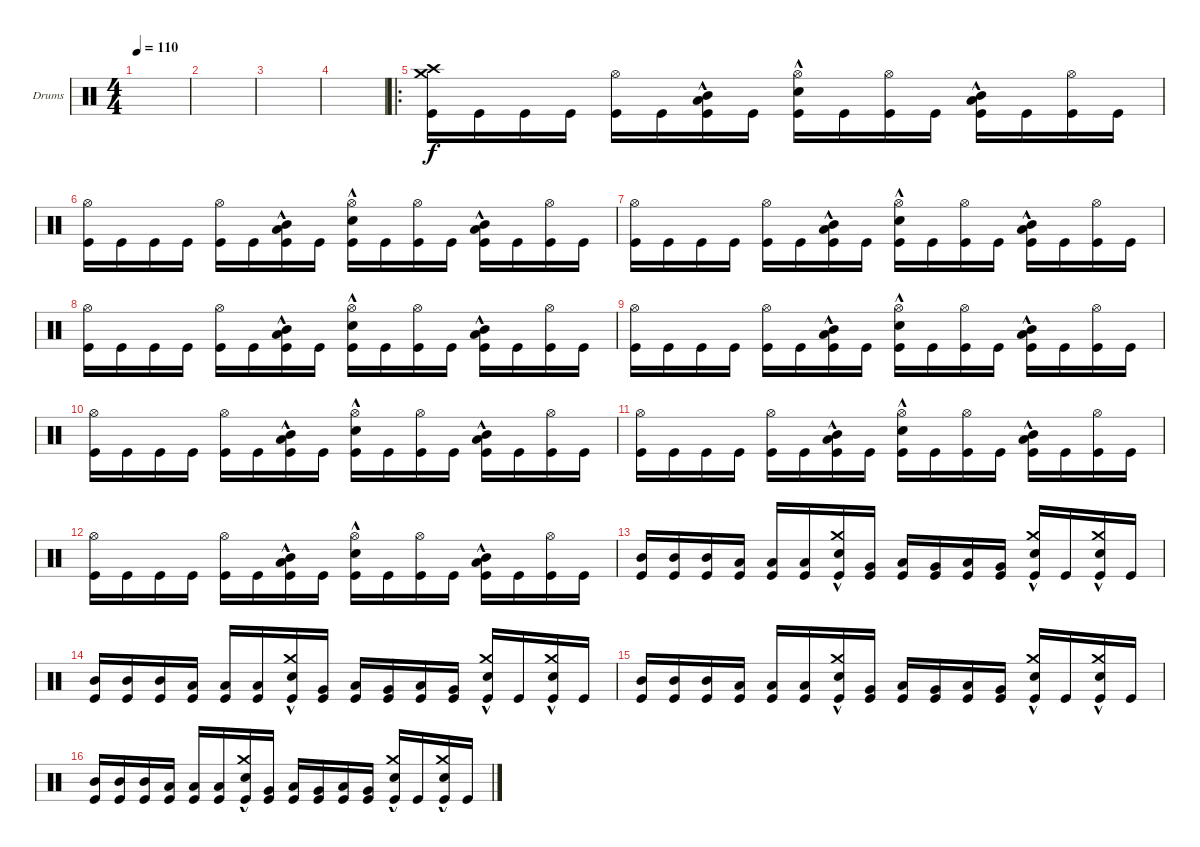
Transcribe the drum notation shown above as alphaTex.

\defaultSystemsLayout 4
\bracketExtendMode groupsimilarinstruments
\firstSystemTrackNameOrientation horizontal
\otherSystemsTrackNameOrientation horizontal
\track ("Drumkit" "Drums") {instrument percussion}
\staff {score}
\articulation defaults
\ts (4 4)
\tempo 110
\clef neutral
\scale
0.472222
\ks c
|
\scale
0.263889 |
\scale
0.263889 |
\scale
0.311475 |
\ro
\scale
0.377049 ("Kick (hit)" "Crash medium (hit)" "Crash high (hit)").16 "Kick (hit)".16 "Kick (hit)".16 "Kick (hit)".16 ("Kick (hit)" "Hi-Hat (open)").16 "Kick (hit)".16 ("Kick (hit)" "Mid Tom (hit)"{hac} "Low Tom (hit)"{hac}).16 "Kick (hit)".16 ("Kick (hit)" "Snare (hit) 2"{hac} "Hi-Hat (open)").16 "Kick (hit)".16 ("Kick (hit)" "Hi-Hat (open)").16 "Kick (hit)".16 ("Kick (hit)" "Low Tom (hit)"{hac} "Mid Tom (hit)"{hac}).16 "Kick (hit)".16 ("Kick (hit)" "Hi-Hat (open)").16 "Kick (hit)".16 |
\scale
0.311475 ("Kick (hit)" "Hi-Hat (open)").16 "Kick (hit)".16 "Kick (hit)".16 "Kick (hit)".16 ("Kick (hit)" "Hi-Hat (open)").16 "Kick (hit)".16 ("Kick (hit)" "Mid Tom (hit)"{hac} "Low Tom (hit)"{hac}).16 "Kick (hit)".16 ("Kick (hit)" "Snare (hit) 2"{hac} "Hi-Hat (open)").16 "Kick (hit)".16 ("Kick (hit)" "Hi-Hat (open)").16 "Kick (hit)".16 ("Kick (hit)" "Low Tom (hit)"{hac} "Mid Tom (hit)"{hac}).16 "Kick (hit)".16 ("Kick (hit)" "Hi-Hat (open)").16 "Kick (hit)".16 |
\scale
0.333333 ("Kick (hit)" "Hi-Hat (open)").16 "Kick (hit)".16 "Kick (hit)".16 "Kick (hit)".16 ("Kick (hit)" "Hi-Hat (open)").16 "Kick (hit)".16 ("Kick (hit)" "Mid Tom (hit)"{hac} "Low Tom (hit)"{hac}).16 "Kick (hit)".16 ("Kick (hit)" "Snare (hit) 2"{hac} "Hi-Hat (open)").16 "Kick (hit)".16 ("Kick (hit)" "Hi-Hat (open)").16 "Kick (hit)".16 ("Kick (hit)" "Low Tom (hit)"{hac} "Mid Tom (hit)"{hac}).16 "Kick (hit)".16 ("Kick (hit)" "Hi-Hat (open)").16 "Kick (hit)".16 |
\scale
0.333333 ("Kick (hit)" "Hi-Hat (open)").16 "Kick (hit)".16 "Kick (hit)".16 "Kick (hit)".16 ("Kick (hit)" "Hi-Hat (open)").16 "Kick (hit)".16 ("Kick (hit)" "Mid Tom (hit)"{hac} "Low Tom (hit)"{hac}).16 "Kick (hit)".16 ("Kick (hit)" "Snare (hit) 2"{hac} "Hi-Hat (open)").16 "Kick (hit)".16 ("Kick (hit)" "Hi-Hat (open)").16 "Kick (hit)".16 ("Kick (hit)" "Low Tom (hit)"{hac} "Mid Tom (hit)"{hac}).16 "Kick (hit)".16 ("Kick (hit)" "Hi-Hat (open)").16 "Kick (hit)".16 |
\scale
0.333333 ("Kick (hit)" "Hi-Hat (open)").16 "Kick (hit)".16 "Kick (hit)".16 "Kick (hit)".16 ("Kick (hit)" "Hi-Hat (open)").16 "Kick (hit)".16 ("Kick (hit)" "Mid Tom (hit)"{hac} "Low Tom (hit)"{hac}).16 "Kick (hit)".16 ("Kick (hit)" "Snare (hit) 2"{hac} "Hi-Hat (open)").16 "Kick (hit)".16 ("Kick (hit)" "Hi-Hat (open)").16 "Kick (hit)".16 ("Kick (hit)" "Low Tom (hit)"{hac} "Mid Tom (hit)"{hac}).16 "Kick (hit)".16 ("Kick (hit)" "Hi-Hat (open)").16 "Kick (hit)".16 |
\scale
0.333333 ("Kick (hit)" "Hi-Hat (open)").16 "Kick (hit)".16 "Kick (hit)".16 "Kick (hit)".16 ("Kick (hit)" "Hi-Hat (open)").16 "Kick (hit)".16 ("Kick (hit)" "Mid Tom (hit)"{hac} "Low Tom (hit)"{hac}).16 "Kick (hit)".16 ("Kick (hit)" "Snare (hit) 2"{hac} "Hi-Hat (open)").16 "Kick (hit)".16 ("Kick (hit)" "Hi-Hat (open)").16 "Kick (hit)".16 ("Kick (hit)" "Low Tom (hit)"{hac} "Mid Tom (hit)"{hac}).16 "Kick (hit)".16 ("Kick (hit)" "Hi-Hat (open)").16 "Kick (hit)".16 |
\scale
0.333333 ("Kick (hit)" "Hi-Hat (open)").16 "Kick (hit)".16 "Kick (hit)".16 "Kick (hit)".16 ("Kick (hit)" "Hi-Hat (open)").16 "Kick (hit)".16 ("Kick (hit)" "Mid Tom (hit)"{hac} "Low Tom (hit)"{hac}).16 "Kick (hit)".16 ("Kick (hit)" "Snare (hit) 2"{hac} "Hi-Hat (open)").16 "Kick (hit)".16 ("Kick (hit)" "Hi-Hat (open)").16 "Kick (hit)".16 ("Kick (hit)" "Low Tom (hit)"{hac} "Mid Tom (hit)"{hac}).16 "Kick (hit)".16 ("Kick (hit)" "Hi-Hat (open)").16 "Kick (hit)".16 |
\scale
0.333333 ("Kick (hit)" "Hi-Hat (open)").16 "Kick (hit)".16 "Kick (hit)".16 "Kick (hit)".16 ("Kick (hit)" "Hi-Hat (open)").16 "Kick (hit)".16 ("Kick (hit)" "Mid Tom (hit)"{hac} "Low Tom (hit)"{hac}).16 "Kick (hit)".16 ("Kick (hit)" "Snare (hit) 2"{hac} "Hi-Hat (open)").16 "Kick (hit)".16 ("Kick (hit)" "Hi-Hat (open)").16 "Kick (hit)".16 ("Kick (hit)" "Low Tom (hit)"{hac} "Mid Tom (hit)"{hac}).16 "Kick (hit)".16 ("Kick (hit)" "Hi-Hat (open)").16 "Kick (hit)".16 |
\scale
0.333333 ("Kick (hit)" "Mid Tom (hit)").16 ("Kick (hit)" "Mid Tom (hit)").16 ("Kick (hit)" "Mid Tom (hit)").16 ("Kick (hit)" "Low Tom (hit)").16 ("Kick (hit)" "Low Tom (hit)").16 ("Kick (hit)" "Low Tom (hit)").16 ("Kick (hit)" "Snare (hit) 2"{hac} "Crash medium (hit)").16 ("Kick (hit)" "Very Low Tom (hit)").16 ("Kick (hit)" "Low Tom (hit)").16 ("Kick (hit)" "Very Low Tom (hit)").16 ("Kick (hit)" "Low Tom (hit)").16 ("Kick (hit)" "Very Low Tom (hit)").16 ("Kick (hit)" "Snare (hit) 2"{hac} "Crash medium (hit)").16 "Kick (hit)".16 ("Kick (hit)" "Snare (hit) 2"{hac} "Crash medium (hit)").16 "Kick (hit)".16 |
\scale
0.333333 ("Kick (hit)" "Mid Tom (hit)").16 ("Kick (hit)" "Mid Tom (hit)").16 ("Kick (hit)" "Mid Tom (hit)").16 ("Kick (hit)" "Low Tom (hit)").16 ("Kick (hit)" "Low Tom (hit)").16 ("Kick (hit)" "Low Tom (hit)").16 ("Kick (hit)" "Snare (hit) 2"{hac} "Crash medium (hit)").16 ("Kick (hit)" "Very Low Tom (hit)").16 ("Kick (hit)" "Low Tom (hit)").16 ("Kick (hit)" "Very Low Tom (hit)").16 ("Kick (hit)" "Low Tom (hit)").16 ("Kick (hit)" "Very Low Tom (hit)").16 ("Kick (hit)" "Snare (hit) 2"{hac} "Crash medium (hit)").16 "Kick (hit)".16 ("Kick (hit)" "Snare (hit) 2"{hac} "Crash medium (hit)").16 "Kick (hit)".16 |
\scale
0.333333 ("Kick (hit)" "Mid Tom (hit)").16 ("Kick (hit)" "Mid Tom (hit)").16 ("Kick (hit)" "Mid Tom (hit)").16 ("Kick (hit)" "Low Tom (hit)").16 ("Kick (hit)" "Low Tom (hit)").16 ("Kick (hit)" "Low Tom (hit)").16 ("Kick (hit)" "Snare (hit) 2"{hac} "Crash medium (hit)").16 ("Kick (hit)" "Very Low Tom (hit)").16 ("Kick (hit)" "Low Tom (hit)").16 ("Kick (hit)" "Very Low Tom (hit)").16 ("Kick (hit)" "Low Tom (hit)").16 ("Kick (hit)" "Very Low Tom (hit)").16 ("Kick (hit)" "Snare (hit) 2"{hac} "Crash medium (hit)").16 "Kick (hit)".16 ("Kick (hit)" "Snare (hit) 2"{hac} "Crash medium (hit)").16 "Kick (hit)".16 |
\scale
0.322034 ("Kick (hit)" "Mid Tom (hit)").16 ("Kick (hit)" "Mid Tom (hit)").16 ("Kick (hit)" "Mid Tom (hit)").16 ("Kick (hit)" "Low Tom (hit)").16 ("Kick (hit)" "Low Tom (hit)").16 ("Kick (hit)" "Low Tom (hit)").16 ("Kick (hit)" "Snare (hit) 2"{hac} "Crash medium (hit)").16 ("Kick (hit)" "Very Low Tom (hit)").16 ("Kick (hit)" "Low Tom (hit)").16 ("Kick (hit)" "Very Low Tom (hit)").16 ("Kick (hit)" "Low Tom (hit)").16 ("Kick (hit)" "Very Low Tom (hit)").16 ("Kick (hit)" "Snare (hit) 2"{hac} "Crash medium (hit)").16 "Kick (hit)".16 ("Kick (hit)" "Snare (hit) 2"{hac} "Crash medium (hit)").16 "Kick (hit)".16
